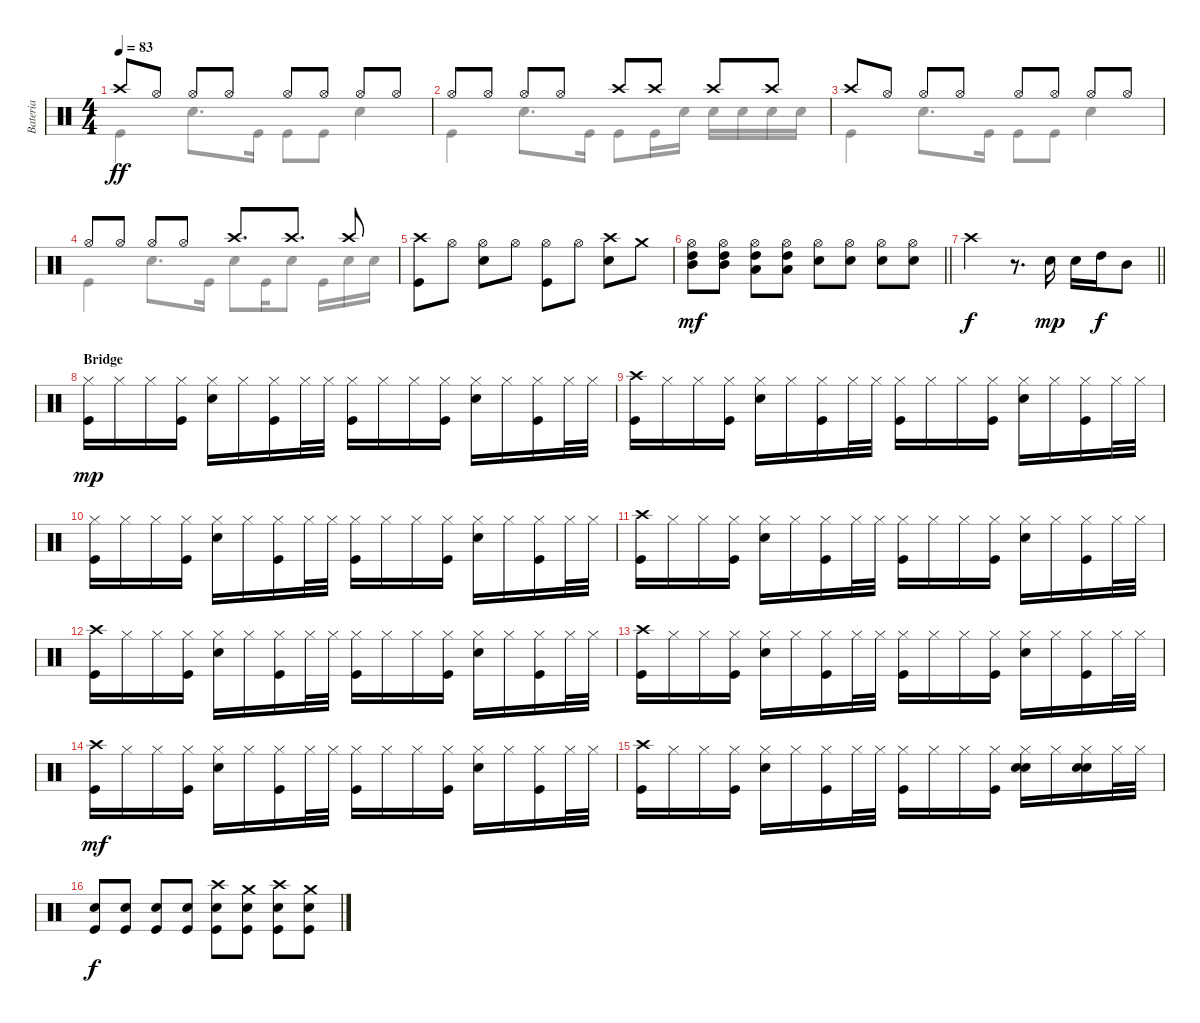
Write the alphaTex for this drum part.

\track ("Bateria" "Bateria") {instrument percussion}
\staff {score}
\articulation defaults
\voice
\ts (4 4)
\tempo 83
\clef neutral
\ks c "Crash high (hit)".8{dy ff} "Hi-Hat (open)".8 "Hi-Hat (open)".8 "Hi-Hat (open)".8 "Hi-Hat (open)".8 "Hi-Hat (open)".8 "Hi-Hat (open)".8 "Hi-Hat (open)".8
|
"Hi-Hat (open)".8 "Hi-Hat (open)".8 "Hi-Hat (open)".8 "Hi-Hat (open)".8 "Crash high (hit)".8 "Crash high (hit)".8 "Crash high (hit)".8 "Crash high (hit)".8 |
"Crash high (hit)".8 "Hi-Hat (open)".8 "Hi-Hat (open)".8 "Hi-Hat (open)".8 "Hi-Hat (open)".8 "Hi-Hat (open)".8 "Hi-Hat (open)".8 "Hi-Hat (open)".8 |
"Hi-Hat (open)".8 "Hi-Hat (open)".8 "Hi-Hat (open)".8 "Hi-Hat (open)".8 "Crash high (hit)".8{d} "Crash high (hit)".8{d} "Crash high (hit)".8 |
("Crash high (hit)" "Kick (hit)").8 "Hi-Hat (open)".8 ("Hi-Hat (open)" "Snare (hit) 2").8 "Hi-Hat (open)".8 ("Hi-Hat (open)" "Kick (hit)").8 "Hi-Hat (open)".8 ("Crash high (hit)" "Snare (hit) 2").8 "Crash medium (hit)".8 |
\barLineRight lightlight
("Hi-Hat (open)" "High Tom (hit)" "Mid Tom (hit)").8{dy mf} ("Hi-Hat (open)" "High Tom (hit)" "Mid Tom (hit)").8 ("Hi-Hat (open)" "High Tom (hit)" "Low Tom (hit)").8 ("Hi-Hat (open)" "High Tom (hit)" "Low Tom (hit)").8 ("Hi-Hat (open)" "Snare (hit) 2").8 ("Hi-Hat (open)" "Snare (hit) 2").8 ("Hi-Hat (open)" "Snare (hit) 2").8 ("Hi-Hat (open)" "Snare (hit) 2").8 |
\barLineRight lightlight "Crash high (hit)".2{dy f}
r.8{d} "Snare (hit) 2".16{dy mp} "Snare (hit) 2".16 "High Tom (hit)".16{dy f} "Mid Tom (hit)".8 |
\section ("" "Bridge")
("Hi-Hat (closed)" "Kick (hit)").16{dy mp} "Hi-Hat (closed)".16 "Hi-Hat (closed)".16 ("Hi-Hat (closed)" "Kick (hit)").16 ("Hi-Hat (closed)" "Snare (hit) 2").16 "Hi-Hat (closed)".16 ("Hi-Hat (closed)" "Kick (hit)").16 "Hi-Hat (closed)".32 "Hi-Hat (closed)".32 ("Hi-Hat (closed)" "Kick (hit)").16 "Hi-Hat (closed)".16 "Hi-Hat (closed)".16 ("Hi-Hat (closed)" "Kick (hit)").16 ("Hi-Hat (closed)" "Snare (hit) 2").16 "Hi-Hat (closed)".16 ("Hi-Hat (closed)" "Kick (hit)").16 "Hi-Hat (closed)".32 "Hi-Hat (closed)".32 |
("Crash high (hit)" "Kick (hit)").16 "Hi-Hat (closed)".16 "Hi-Hat (closed)".16 ("Hi-Hat (closed)" "Kick (hit)").16 ("Hi-Hat (closed)" "Snare (hit) 2").16 "Hi-Hat (closed)".16 ("Hi-Hat (closed)" "Kick (hit)").16 "Hi-Hat (closed)".32 "Hi-Hat (closed)".32 ("Hi-Hat (closed)" "Kick (hit)").16 "Hi-Hat (closed)".16 "Hi-Hat (closed)".16 ("Hi-Hat (closed)" "Kick (hit)").16 ("Hi-Hat (closed)" "Snare (hit) 2").16 "Hi-Hat (closed)".16 ("Hi-Hat (closed)" "Kick (hit)").16 "Hi-Hat (closed)".32 "Hi-Hat (closed)".32 |
("Hi-Hat (closed)" "Kick (hit)").16 "Hi-Hat (closed)".16 "Hi-Hat (closed)".16 ("Hi-Hat (closed)" "Kick (hit)").16 ("Hi-Hat (closed)" "Snare (hit) 2").16 "Hi-Hat (closed)".16 ("Hi-Hat (closed)" "Kick (hit)").16 "Hi-Hat (closed)".32 "Hi-Hat (closed)".32 ("Hi-Hat (closed)" "Kick (hit)").16 "Hi-Hat (closed)".16 "Hi-Hat (closed)".16 ("Hi-Hat (closed)" "Kick (hit)").16 ("Hi-Hat (closed)" "Snare (hit) 2").16 "Hi-Hat (closed)".16 ("Hi-Hat (closed)" "Kick (hit)").16 "Hi-Hat (closed)".32 "Hi-Hat (closed)".32 |
("Crash high (hit)" "Kick (hit)").16 "Hi-Hat (closed)".16 "Hi-Hat (closed)".16 ("Hi-Hat (closed)" "Kick (hit)").16 ("Hi-Hat (closed)" "Snare (hit) 2").16 "Hi-Hat (closed)".16 ("Hi-Hat (closed)" "Kick (hit)").16 "Hi-Hat (closed)".32 "Hi-Hat (closed)".32 ("Hi-Hat (closed)" "Kick (hit)").16 "Hi-Hat (closed)".16 "Hi-Hat (closed)".16 ("Hi-Hat (closed)" "Kick (hit)").16 ("Hi-Hat (closed)" "Snare (hit) 2").16 "Hi-Hat (closed)".16 ("Hi-Hat (closed)" "Kick (hit)").16 "Hi-Hat (closed)".32 "Hi-Hat (closed)".32 |
("Crash high (hit)" "Kick (hit)").16 "Hi-Hat (closed)".16 "Hi-Hat (closed)".16 ("Hi-Hat (closed)" "Kick (hit)").16 ("Hi-Hat (closed)" "Snare (hit) 2").16 "Hi-Hat (closed)".16 ("Hi-Hat (closed)" "Kick (hit)").16 "Hi-Hat (closed)".32 "Hi-Hat (closed)".32 ("Hi-Hat (closed)" "Kick (hit)").16 "Hi-Hat (closed)".16 "Hi-Hat (closed)".16 ("Hi-Hat (closed)" "Kick (hit)").16 ("Hi-Hat (closed)" "Snare (hit) 2").16 "Hi-Hat (closed)".16 ("Hi-Hat (closed)" "Kick (hit)").16 "Hi-Hat (closed)".32 "Hi-Hat (closed)".32 |
("Crash high (hit)" "Kick (hit)").16 "Hi-Hat (closed)".16 "Hi-Hat (closed)".16 ("Hi-Hat (closed)" "Kick (hit)").16 ("Hi-Hat (closed)" "Snare (hit) 2").16 "Hi-Hat (closed)".16 ("Hi-Hat (closed)" "Kick (hit)").16 "Hi-Hat (closed)".32 "Hi-Hat (closed)".32 ("Hi-Hat (closed)" "Kick (hit)").16 "Hi-Hat (closed)".16 "Hi-Hat (closed)".16 ("Hi-Hat (closed)" "Kick (hit)").16 ("Hi-Hat (closed)" "Snare (hit) 2").16 "Hi-Hat (closed)".16 ("Hi-Hat (closed)" "Kick (hit)").16 "Hi-Hat (closed)".32 "Hi-Hat (closed)".32 |
("Crash high (hit)" "Kick (hit)").16{dy mf} "Hi-Hat (closed)".16 "Hi-Hat (closed)".16 ("Hi-Hat (closed)" "Kick (hit)").16 ("Hi-Hat (closed)" "Snare (hit) 2").16 "Hi-Hat (closed)".16 ("Hi-Hat (closed)" "Kick (hit)").16 "Hi-Hat (closed)".32 "Hi-Hat (closed)".32 ("Hi-Hat (closed)" "Kick (hit)").16 "Hi-Hat (closed)".16 "Hi-Hat (closed)".16 ("Hi-Hat (closed)" "Kick (hit)").16 ("Hi-Hat (closed)" "Snare (hit) 2").16 "Hi-Hat (closed)".16 ("Hi-Hat (closed)" "Kick (hit)").16 "Hi-Hat (closed)".32 "Hi-Hat (closed)".32 |
("Crash high (hit)" "Kick (hit)").16 "Hi-Hat (closed)".16 "Hi-Hat (closed)".16 ("Hi-Hat (closed)" "Kick (hit)").16 ("Hi-Hat (closed)" "Snare (hit) 2").16 "Hi-Hat (closed)".16 ("Hi-Hat (closed)" "Kick (hit)").16 "Hi-Hat (closed)".32 "Hi-Hat (closed)".32 ("Hi-Hat (closed)" "Kick (hit)").16 "Hi-Hat (closed)".16 "Hi-Hat (closed)".16 ("Hi-Hat (closed)" "Kick (hit)").16 ("Hi-Hat (closed)" "Snare (hit) 2" "Snare (hit) 2").16 "Hi-Hat (closed)".16 ("Hi-Hat (closed)" "Snare (hit) 2" "Snare (hit) 2").16 "Hi-Hat (closed)".32 "Hi-Hat (closed)".32 |
("Snare (hit) 2" "Kick (hit)").8{dy f} ("Snare (hit) 2" "Kick (hit)").8 ("Snare (hit) 2" "Kick (hit)").8 ("Snare (hit) 2" "Kick (hit)").8 ("Crash high (hit)" "Snare (hit) 2" "Kick (hit)").8 ("Crash medium (hit)" "Snare (hit) 2" "Kick (hit)").8 ("Crash high (hit)" "Snare (hit) 2" "Kick (hit)").8 ("Crash medium (hit)" "Snare (hit) 2" "Kick (hit)").8
\voice
\clef neutral
\ottava regular
\simile none
\ks c "Kick (hit)".4{dy ff} "Snare (hit) 2".8{d} "Kick (hit)".16 "Kick (hit)".8 "Kick (hit)".8 "Snare (hit) 2".4
|
"Kick (hit)".4 "Snare (hit) 2".8{d} "Kick (hit)".16 "Kick (hit)".8 "Kick (hit)".16 "Snare (hit) 2".16 "Snare (hit) 2".16 "Snare (hit) 2".16 "Snare (hit) 2".16 "Snare (hit) 2".16 |
"Kick (hit)".4 "Snare (hit) 2".8{d} "Kick (hit)".16 "Kick (hit)".8 "Kick (hit)".8 "Snare (hit) 2".4 |
"Kick (hit)".4 "Snare (hit) 2".8{d} "Kick (hit)".16 "Snare (hit) 2".8 "Kick (hit)".16 "Snare (hit) 2".8 "Kick (hit)".16 "Snare (hit) 2".16 "Snare (hit) 2".16 |
|
\barLineRight lightlight
|
\barLineRight lightlight
|
|
|
|
|
|
|
|
|
